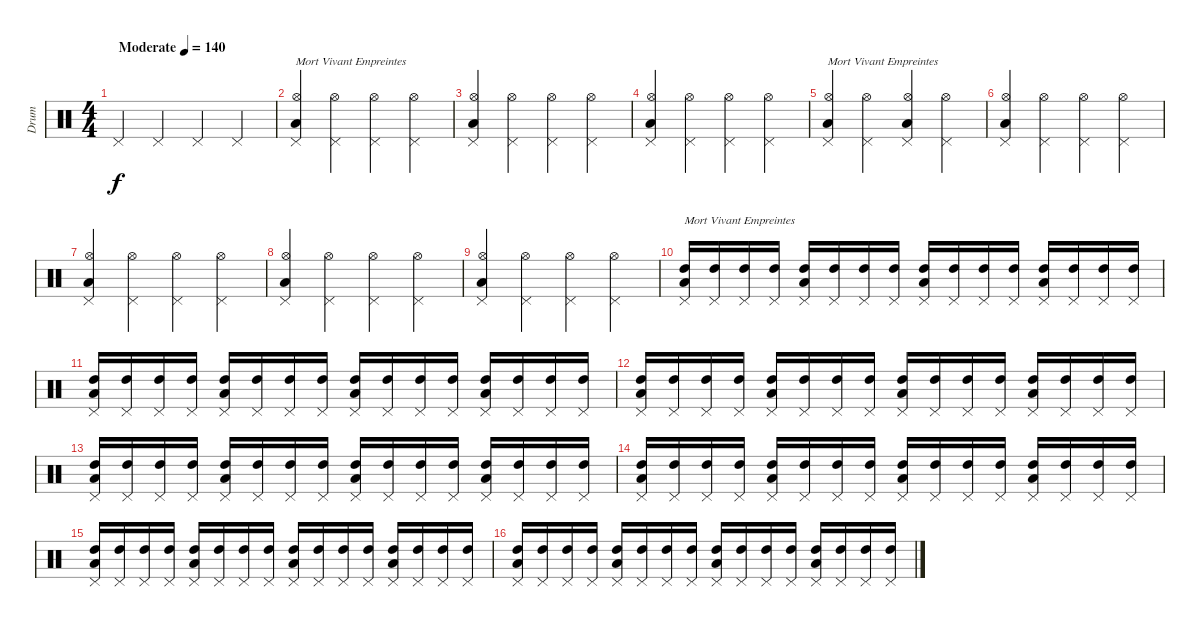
\track ("Drum" "Drum") {instrument percussion}
\staff {score}
\articulation defaults
\ts (4 4)
\tempo (140 "Moderate")
\clef neutral
\ks c "Pedal Hi-Hat (hit)".4{dy f} "Pedal Hi-Hat (hit)".4 "Pedal Hi-Hat (hit)".4 "Pedal Hi-Hat (hit)".4
|
("Hi-Hat (open)" "Low Tom (hit)" "Pedal Hi-Hat (hit)").4{txt "Mort Vivant Empreintes"} ("Hi-Hat (open)" "Pedal Hi-Hat (hit)").4 ("Hi-Hat (open)" "Pedal Hi-Hat (hit)").4 ("Hi-Hat (open)" "Pedal Hi-Hat (hit)").4 |
("Hi-Hat (open)" "Low Tom (hit)" "Pedal Hi-Hat (hit)").4 ("Hi-Hat (open)" "Pedal Hi-Hat (hit)").4 ("Hi-Hat (open)" "Pedal Hi-Hat (hit)").4 ("Hi-Hat (open)" "Pedal Hi-Hat (hit)").4 |
("Hi-Hat (open)" "Low Tom (hit)" "Pedal Hi-Hat (hit)").4 ("Hi-Hat (open)" "Pedal Hi-Hat (hit)").4 ("Hi-Hat (open)" "Pedal Hi-Hat (hit)").4 ("Hi-Hat (open)" "Pedal Hi-Hat (hit)").4 |
("Hi-Hat (open)" "Low Tom (hit)" "Pedal Hi-Hat (hit)").4{txt "Mort Vivant Empreintes"} ("Hi-Hat (open)" "Pedal Hi-Hat (hit)").4 ("Hi-Hat (open)" "Low Tom (hit)" "Pedal Hi-Hat (hit)").4 ("Hi-Hat (open)" "Pedal Hi-Hat (hit)").4 |
("Hi-Hat (open)" "Low Tom (hit)" "Pedal Hi-Hat (hit)").4 ("Hi-Hat (open)" "Pedal Hi-Hat (hit)").4 ("Hi-Hat (open)" "Pedal Hi-Hat (hit)").4 ("Hi-Hat (open)" "Pedal Hi-Hat (hit)").4 |
("Hi-Hat (open)" "Low Tom (hit)" "Pedal Hi-Hat (hit)").4 ("Hi-Hat (open)" "Pedal Hi-Hat (hit)").4 ("Hi-Hat (open)" "Pedal Hi-Hat (hit)").4 ("Hi-Hat (open)" "Pedal Hi-Hat (hit)").4 |
("Hi-Hat (open)" "Low Tom (hit)" "Pedal Hi-Hat (hit)").4 ("Hi-Hat (open)" "Pedal Hi-Hat (hit)").4 ("Hi-Hat (open)" "Pedal Hi-Hat (hit)").4 ("Hi-Hat (open)" "Pedal Hi-Hat (hit)").4 |
("Hi-Hat (open)" "Low Tom (hit)" "Pedal Hi-Hat (hit)").4 ("Hi-Hat (open)" "Pedal Hi-Hat (hit)").4 ("Hi-Hat (open)" "Pedal Hi-Hat (hit)").4 ("Hi-Hat (open)" "Pedal Hi-Hat (hit)").4 |
("High Tom (hit)" "Low Tom (hit)" "Pedal Hi-Hat (hit)").16{txt "Mort Vivant Empreintes"} ("High Tom (hit)" "Pedal Hi-Hat (hit)").16 ("High Tom (hit)" "Pedal Hi-Hat (hit)").16 ("High Tom (hit)" "Pedal Hi-Hat (hit)").16 ("High Tom (hit)" "Low Tom (hit)" "Pedal Hi-Hat (hit)").16 ("High Tom (hit)" "Pedal Hi-Hat (hit)").16 ("High Tom (hit)" "Pedal Hi-Hat (hit)").16 ("High Tom (hit)" "Pedal Hi-Hat (hit)").16 ("High Tom (hit)" "Low Tom (hit)" "Pedal Hi-Hat (hit)").16 ("High Tom (hit)" "Pedal Hi-Hat (hit)").16 ("High Tom (hit)" "Pedal Hi-Hat (hit)").16 ("High Tom (hit)" "Pedal Hi-Hat (hit)").16 ("High Tom (hit)" "Low Tom (hit)" "Pedal Hi-Hat (hit)").16 ("High Tom (hit)" "Pedal Hi-Hat (hit)").16 ("High Tom (hit)" "Pedal Hi-Hat (hit)").16 ("High Tom (hit)" "Pedal Hi-Hat (hit)").16 |
("High Tom (hit)" "Low Tom (hit)" "Pedal Hi-Hat (hit)").16 ("High Tom (hit)" "Pedal Hi-Hat (hit)").16 ("High Tom (hit)" "Pedal Hi-Hat (hit)").16 ("High Tom (hit)" "Pedal Hi-Hat (hit)").16 ("High Tom (hit)" "Low Tom (hit)" "Pedal Hi-Hat (hit)").16 ("High Tom (hit)" "Pedal Hi-Hat (hit)").16 ("High Tom (hit)" "Pedal Hi-Hat (hit)").16 ("High Tom (hit)" "Pedal Hi-Hat (hit)").16 ("High Tom (hit)" "Low Tom (hit)" "Pedal Hi-Hat (hit)").16 ("High Tom (hit)" "Pedal Hi-Hat (hit)").16 ("High Tom (hit)" "Pedal Hi-Hat (hit)").16 ("High Tom (hit)" "Pedal Hi-Hat (hit)").16 ("High Tom (hit)" "Low Tom (hit)" "Pedal Hi-Hat (hit)").16 ("High Tom (hit)" "Pedal Hi-Hat (hit)").16 ("High Tom (hit)" "Pedal Hi-Hat (hit)").16 ("High Tom (hit)" "Pedal Hi-Hat (hit)").16 |
("High Tom (hit)" "Low Tom (hit)" "Pedal Hi-Hat (hit)").16 ("High Tom (hit)" "Pedal Hi-Hat (hit)").16 ("High Tom (hit)" "Pedal Hi-Hat (hit)").16 ("High Tom (hit)" "Pedal Hi-Hat (hit)").16 ("High Tom (hit)" "Low Tom (hit)" "Pedal Hi-Hat (hit)").16 ("High Tom (hit)" "Pedal Hi-Hat (hit)").16 ("High Tom (hit)" "Pedal Hi-Hat (hit)").16 ("High Tom (hit)" "Pedal Hi-Hat (hit)").16 ("High Tom (hit)" "Low Tom (hit)" "Pedal Hi-Hat (hit)").16 ("High Tom (hit)" "Pedal Hi-Hat (hit)").16 ("High Tom (hit)" "Pedal Hi-Hat (hit)").16 ("High Tom (hit)" "Pedal Hi-Hat (hit)").16 ("High Tom (hit)" "Low Tom (hit)" "Pedal Hi-Hat (hit)").16 ("High Tom (hit)" "Pedal Hi-Hat (hit)").16 ("High Tom (hit)" "Pedal Hi-Hat (hit)").16 ("High Tom (hit)" "Pedal Hi-Hat (hit)").16 |
("High Tom (hit)" "Low Tom (hit)" "Pedal Hi-Hat (hit)").16 ("High Tom (hit)" "Pedal Hi-Hat (hit)").16 ("High Tom (hit)" "Pedal Hi-Hat (hit)").16 ("High Tom (hit)" "Pedal Hi-Hat (hit)").16 ("High Tom (hit)" "Low Tom (hit)" "Pedal Hi-Hat (hit)").16 ("High Tom (hit)" "Pedal Hi-Hat (hit)").16 ("High Tom (hit)" "Pedal Hi-Hat (hit)").16 ("High Tom (hit)" "Pedal Hi-Hat (hit)").16 ("High Tom (hit)" "Low Tom (hit)" "Pedal Hi-Hat (hit)").16 ("High Tom (hit)" "Pedal Hi-Hat (hit)").16 ("High Tom (hit)" "Pedal Hi-Hat (hit)").16 ("High Tom (hit)" "Pedal Hi-Hat (hit)").16 ("High Tom (hit)" "Low Tom (hit)" "Pedal Hi-Hat (hit)").16 ("High Tom (hit)" "Pedal Hi-Hat (hit)").16 ("High Tom (hit)" "Pedal Hi-Hat (hit)").16 ("High Tom (hit)" "Pedal Hi-Hat (hit)").16 |
("High Tom (hit)" "Low Tom (hit)" "Pedal Hi-Hat (hit)").16 ("High Tom (hit)" "Pedal Hi-Hat (hit)").16 ("High Tom (hit)" "Pedal Hi-Hat (hit)").16 ("High Tom (hit)" "Pedal Hi-Hat (hit)").16 ("High Tom (hit)" "Low Tom (hit)" "Pedal Hi-Hat (hit)").16 ("High Tom (hit)" "Pedal Hi-Hat (hit)").16 ("High Tom (hit)" "Pedal Hi-Hat (hit)").16 ("High Tom (hit)" "Pedal Hi-Hat (hit)").16 ("High Tom (hit)" "Low Tom (hit)" "Pedal Hi-Hat (hit)").16 ("High Tom (hit)" "Pedal Hi-Hat (hit)").16 ("High Tom (hit)" "Pedal Hi-Hat (hit)").16 ("High Tom (hit)" "Pedal Hi-Hat (hit)").16 ("High Tom (hit)" "Low Tom (hit)" "Pedal Hi-Hat (hit)").16 ("High Tom (hit)" "Pedal Hi-Hat (hit)").16 ("High Tom (hit)" "Pedal Hi-Hat (hit)").16 ("High Tom (hit)" "Pedal Hi-Hat (hit)").16 |
("High Tom (hit)" "Low Tom (hit)" "Pedal Hi-Hat (hit)").16 ("High Tom (hit)" "Pedal Hi-Hat (hit)").16 ("High Tom (hit)" "Pedal Hi-Hat (hit)").16 ("High Tom (hit)" "Pedal Hi-Hat (hit)").16 ("High Tom (hit)" "Low Tom (hit)" "Pedal Hi-Hat (hit)").16 ("High Tom (hit)" "Pedal Hi-Hat (hit)").16 ("High Tom (hit)" "Pedal Hi-Hat (hit)").16 ("High Tom (hit)" "Pedal Hi-Hat (hit)").16 ("High Tom (hit)" "Low Tom (hit)" "Pedal Hi-Hat (hit)").16 ("High Tom (hit)" "Pedal Hi-Hat (hit)").16 ("High Tom (hit)" "Pedal Hi-Hat (hit)").16 ("High Tom (hit)" "Pedal Hi-Hat (hit)").16 ("High Tom (hit)" "Low Tom (hit)" "Pedal Hi-Hat (hit)").16 ("High Tom (hit)" "Pedal Hi-Hat (hit)").16 ("High Tom (hit)" "Pedal Hi-Hat (hit)").16 ("High Tom (hit)" "Pedal Hi-Hat (hit)").16 |
("High Tom (hit)" "Low Tom (hit)" "Pedal Hi-Hat (hit)").16 ("High Tom (hit)" "Pedal Hi-Hat (hit)").16 ("High Tom (hit)" "Pedal Hi-Hat (hit)").16 ("High Tom (hit)" "Pedal Hi-Hat (hit)").16 ("High Tom (hit)" "Low Tom (hit)" "Pedal Hi-Hat (hit)").16 ("High Tom (hit)" "Pedal Hi-Hat (hit)").16 ("High Tom (hit)" "Pedal Hi-Hat (hit)").16 ("High Tom (hit)" "Pedal Hi-Hat (hit)").16 ("High Tom (hit)" "Low Tom (hit)" "Pedal Hi-Hat (hit)").16 ("High Tom (hit)" "Pedal Hi-Hat (hit)").16 ("High Tom (hit)" "Pedal Hi-Hat (hit)").16 ("High Tom (hit)" "Pedal Hi-Hat (hit)").16 ("High Tom (hit)" "Low Tom (hit)" "Pedal Hi-Hat (hit)").16 ("High Tom (hit)" "Pedal Hi-Hat (hit)").16 ("High Tom (hit)" "Pedal Hi-Hat (hit)").16 ("High Tom (hit)" "Pedal Hi-Hat (hit)").16
